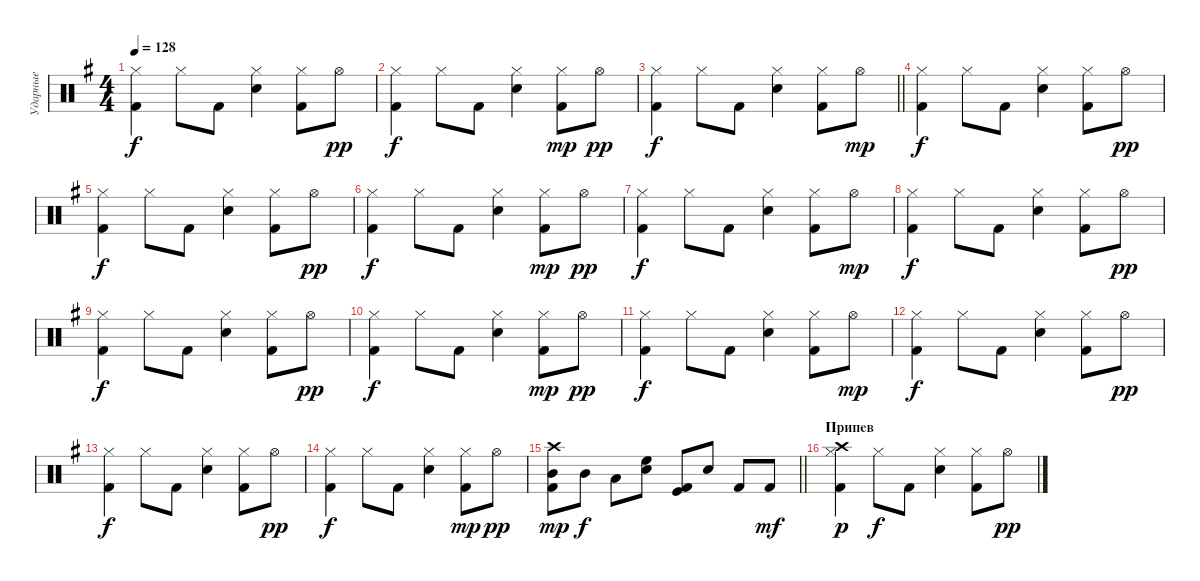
\track ("Ударные" "Ударные") {instrument percussion}
\staff {score}
\articulation defaults
\ts (4 4)
\tempo 128
\clef neutral
\ks eminor
("Hi-Hat (closed)" "Kick (hit) 2").4{dy f} "Hi-Hat (closed)".8 "Kick (hit) 2".8 ("Snare (hit) 2" "Hi-Hat (closed)").4 ("Kick (hit) 2" "Hi-Hat (closed)").8 "Hi-Hat (open)".8{dy pp} |
("Hi-Hat (closed)" "Kick (hit) 2").4{dy f} "Hi-Hat (closed)".8 "Kick (hit) 2".8 ("Snare (hit) 2" "Hi-Hat (closed)").4 ("Kick (hit) 2" "Hi-Hat (closed)").8{dy mp} "Hi-Hat (open)".8{dy pp} |
\barLineRight lightlight
("Hi-Hat (closed)" "Kick (hit) 2").4{dy f} "Hi-Hat (closed)".8 "Kick (hit) 2".8 ("Snare (hit) 2" "Hi-Hat (closed)").4 ("Kick (hit) 2" "Hi-Hat (closed)").8 "Hi-Hat (open)".8{dy mp} |
("Hi-Hat (closed)" "Kick (hit) 2").4{dy f} "Hi-Hat (closed)".8 "Kick (hit) 2".8 ("Snare (hit) 2" "Hi-Hat (closed)").4 ("Kick (hit) 2" "Hi-Hat (closed)").8 "Hi-Hat (open)".8{dy pp} |
("Hi-Hat (closed)" "Kick (hit) 2").4{dy f} "Hi-Hat (closed)".8 "Kick (hit) 2".8 ("Snare (hit) 2" "Hi-Hat (closed)").4 ("Kick (hit) 2" "Hi-Hat (closed)").8 "Hi-Hat (open)".8{dy pp} |
("Hi-Hat (closed)" "Kick (hit) 2").4{dy f} "Hi-Hat (closed)".8 "Kick (hit) 2".8 ("Snare (hit) 2" "Hi-Hat (closed)").4 ("Kick (hit) 2" "Hi-Hat (closed)").8{dy mp} "Hi-Hat (open)".8{dy pp} |
("Hi-Hat (closed)" "Kick (hit) 2").4{dy f} "Hi-Hat (closed)".8 "Kick (hit) 2".8 ("Snare (hit) 2" "Hi-Hat (closed)").4 ("Kick (hit) 2" "Hi-Hat (closed)").8 "Hi-Hat (open)".8{dy mp} |
("Hi-Hat (closed)" "Kick (hit) 2").4{dy f} "Hi-Hat (closed)".8 "Kick (hit) 2".8 ("Snare (hit) 2" "Hi-Hat (closed)").4 ("Kick (hit) 2" "Hi-Hat (closed)").8 "Hi-Hat (open)".8{dy pp} |
("Hi-Hat (closed)" "Kick (hit) 2").4{dy f} "Hi-Hat (closed)".8 "Kick (hit) 2".8 ("Snare (hit) 2" "Hi-Hat (closed)").4 ("Kick (hit) 2" "Hi-Hat (closed)").8 "Hi-Hat (open)".8{dy pp} |
("Hi-Hat (closed)" "Kick (hit) 2").4{dy f} "Hi-Hat (closed)".8 "Kick (hit) 2".8 ("Snare (hit) 2" "Hi-Hat (closed)").4 ("Kick (hit) 2" "Hi-Hat (closed)").8{dy mp} "Hi-Hat (open)".8{dy pp} |
("Hi-Hat (closed)" "Kick (hit) 2").4{dy f} "Hi-Hat (closed)".8 "Kick (hit) 2".8 ("Snare (hit) 2" "Hi-Hat (closed)").4 ("Kick (hit) 2" "Hi-Hat (closed)").8 "Hi-Hat (open)".8{dy mp} |
("Hi-Hat (closed)" "Kick (hit) 2").4{dy f} "Hi-Hat (closed)".8 "Kick (hit) 2".8 ("Snare (hit) 2" "Hi-Hat (closed)").4 ("Kick (hit) 2" "Hi-Hat (closed)").8 "Hi-Hat (open)".8{dy pp} |
("Hi-Hat (closed)" "Kick (hit) 2").4{dy f} "Hi-Hat (closed)".8 "Kick (hit) 2".8 ("Snare (hit) 2" "Hi-Hat (closed)").4 ("Kick (hit) 2" "Hi-Hat (closed)").8 "Hi-Hat (open)".8{dy pp} |
("Hi-Hat (closed)" "Kick (hit) 2").4{dy f} "Hi-Hat (closed)".8 "Kick (hit) 2".8 ("Snare (hit) 2" "Hi-Hat (closed)").4 ("Kick (hit) 2" "Hi-Hat (closed)").8{dy mp} "Hi-Hat (open)".8{dy pp} |
\barLineRight lightlight
("Kick (hit) 2" "Mid Tom (hit)" "Crash high (hit)").8{dy mp} "Mid Tom (hit)".8{dy f} "Low Tom (hit)".8 ("Snare (hit) 2" "High Floor Tom (hit)").8 ("Kick (hit) 2" "Kick (hit)").8 "Snare (hit) 2".8 "Kick (hit) 2".8 "Kick (hit) 2".8{dy mf} |
\section ("" "Припев")
("Hi-Hat (closed)" "Kick (hit) 2" "Crash high (hit)").4{dy p} "Hi-Hat (closed)".8{dy f} "Kick (hit) 2".8 ("Snare (hit) 2" "Hi-Hat (closed)").4 ("Kick (hit) 2" "Hi-Hat (closed)").8 "Hi-Hat (open)".8{dy pp}
